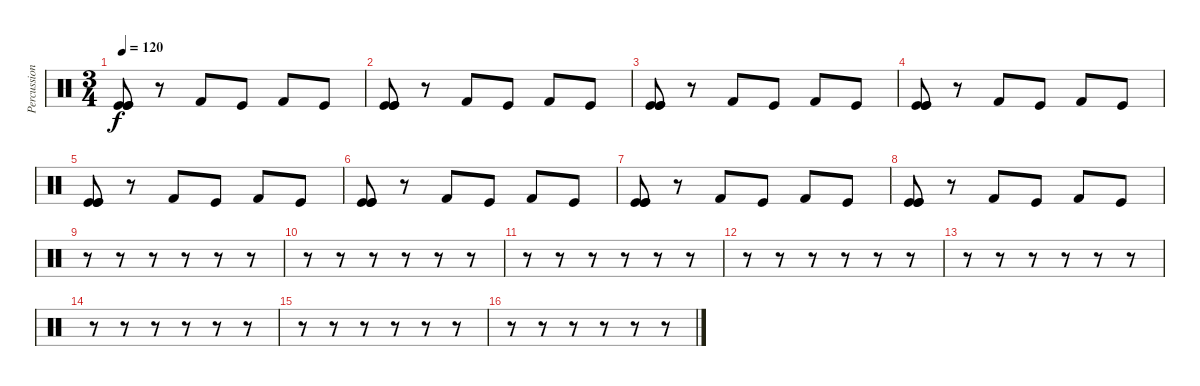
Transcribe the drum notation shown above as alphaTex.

\track ("Percussions" "Percussion") {instrument percussion}
\staff {score}
\articulation defaults
\ts (3 4)
\tempo 120
\clef neutral
\ks c
("Kick (hit)" "Kick (hit)" "Kick (hit)").8{dy f} r.8 "Kick (hit) 2".8 "Kick (hit)".8 "Kick (hit) 2".8 "Kick (hit)".8 |
("Kick (hit)" "Kick (hit)" "Kick (hit)").8 r.8 "Kick (hit) 2".8 "Kick (hit)".8 "Kick (hit) 2".8 "Kick (hit)".8 |
("Kick (hit)" "Kick (hit)" "Kick (hit)").8 r.8 "Kick (hit) 2".8 "Kick (hit)".8 "Kick (hit) 2".8 "Kick (hit)".8 |
("Kick (hit)" "Kick (hit)" "Kick (hit)").8 r.8 "Kick (hit) 2".8 "Kick (hit)".8 "Kick (hit) 2".8 "Kick (hit)".8 |
("Kick (hit)" "Kick (hit)" "Kick (hit)").8 r.8 "Kick (hit) 2".8 "Kick (hit)".8 "Kick (hit) 2".8 "Kick (hit)".8 |
("Kick (hit)" "Kick (hit)" "Kick (hit)").8 r.8 "Kick (hit) 2".8 "Kick (hit)".8 "Kick (hit) 2".8 "Kick (hit)".8 |
("Kick (hit)" "Kick (hit)" "Kick (hit)").8 r.8 "Kick (hit) 2".8 "Kick (hit)".8 "Kick (hit) 2".8 "Kick (hit)".8 |
("Kick (hit)" "Kick (hit)" "Kick (hit)").8 r.8 "Kick (hit) 2".8 "Kick (hit)".8 "Kick (hit) 2".8 "Kick (hit)".8 |
r.8 r.8 r.8 r.8 r.8 r.8 |
r.8 r.8 r.8 r.8 r.8 r.8 |
r.8 r.8 r.8 r.8 r.8 r.8 |
r.8 r.8 r.8 r.8 r.8 r.8 |
r.8 r.8 r.8 r.8 r.8 r.8 |
r.8 r.8 r.8 r.8 r.8 r.8 |
r.8 r.8 r.8 r.8 r.8 r.8 |
r.8 r.8 r.8 r.8 r.8 r.8
